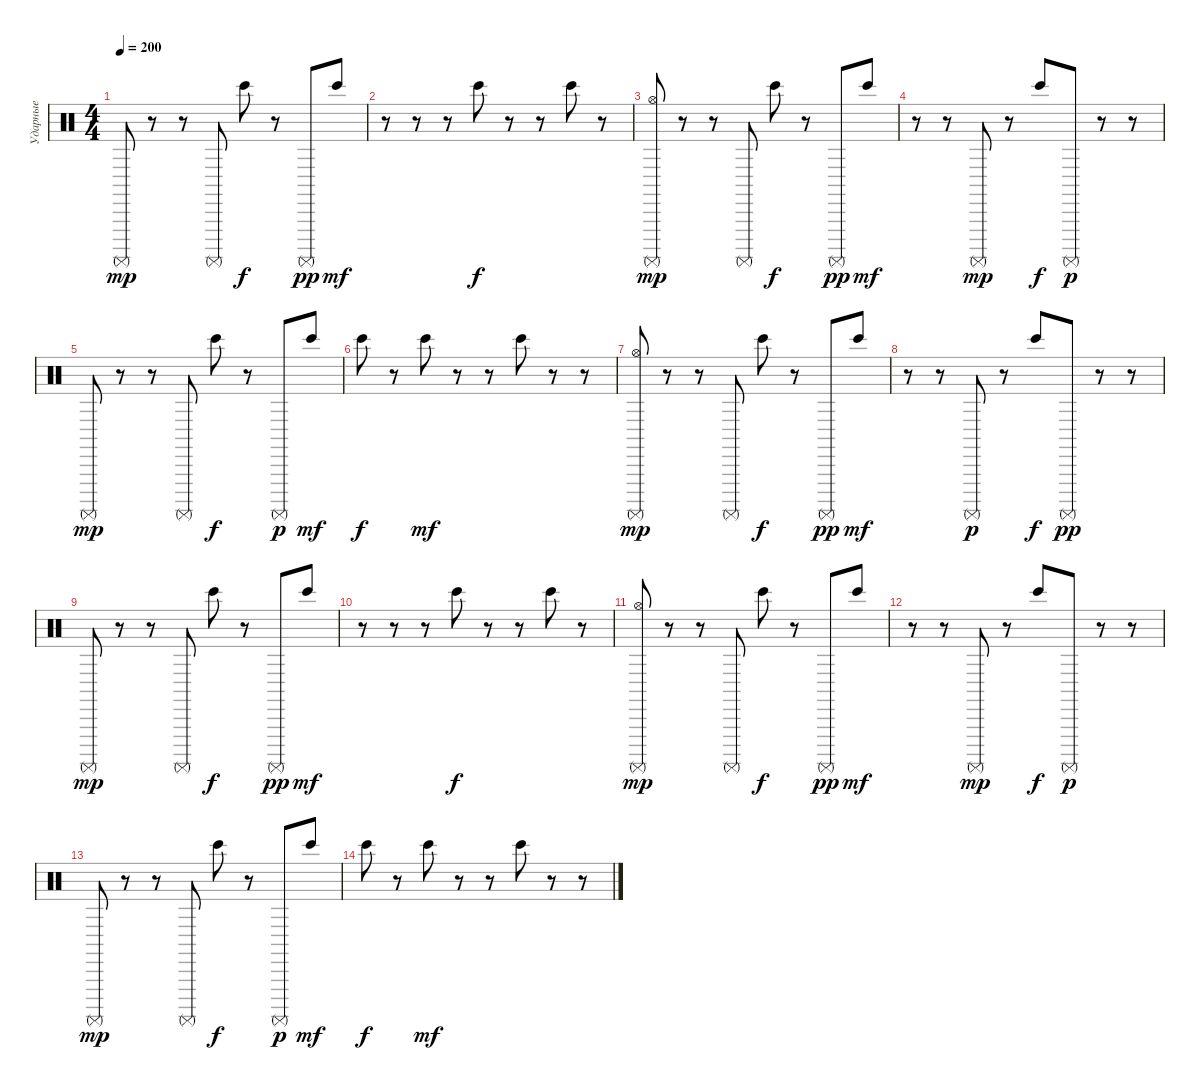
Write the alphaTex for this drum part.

\track ("Ударные" "Ударные") {instrument percussion}
\staff {score}
\articulation defaults
\ts (4 4)
\tempo 200
\clef neutral
\ks c "Surdo (mute)".8{dy mp}
r.8 r.8 "Surdo (mute)".8 "Bongo High (hit)".8{dy f} r.8 "Surdo (mute)".8{dy pp} "Bongo High (hit)".8{dy mf} |
r.8 r.8 r.8 "Bongo High (hit)".8{dy f} r.8 r.8 "Bongo High (hit)".8 r.8 |
("Hi-Hat (open)" "Surdo (mute)").8{dy mp} r.8 r.8 "Surdo (mute)".8 "Bongo High (hit)".8{dy f} r.8 "Surdo (mute)".8{dy pp} "Bongo High (hit)".8{dy mf} |
r.8 r.8 "Surdo (mute)".8{dy mp} r.8 "Bongo High (hit)".8{dy f} "Surdo (mute)".8{dy p} r.8 r.8 |
"Surdo (mute)".8{dy mp} r.8 r.8 "Surdo (mute)".8 "Bongo High (hit)".8{dy f} r.8 "Surdo (mute)".8{dy p} "Bongo High (hit)".8{dy mf} |
"Bongo High (hit)".8{dy f} r.8 "Bongo High (hit)".8{dy mf} r.8 r.8 "Bongo High (hit)".8 r.8 r.8 |
("Hi-Hat (open)" "Surdo (mute)").8{dy mp} r.8 r.8 "Surdo (mute)".8 "Bongo High (hit)".8{dy f} r.8 "Surdo (mute)".8{dy pp} "Bongo High (hit)".8{dy mf} |
r.8 r.8 "Surdo (mute)".8{dy p} r.8 "Bongo High (hit)".8{dy f} "Surdo (mute)".8{dy pp} r.8 r.8 |
"Surdo (mute)".8{dy mp} r.8 r.8 "Surdo (mute)".8 "Bongo High (hit)".8{dy f} r.8 "Surdo (mute)".8{dy pp} "Bongo High (hit)".8{dy mf} |
r.8 r.8 r.8 "Bongo High (hit)".8{dy f} r.8 r.8 "Bongo High (hit)".8 r.8 |
("Hi-Hat (open)" "Surdo (mute)").8{dy mp} r.8 r.8 "Surdo (mute)".8 "Bongo High (hit)".8{dy f} r.8 "Surdo (mute)".8{dy pp} "Bongo High (hit)".8{dy mf} |
r.8 r.8 "Surdo (mute)".8{dy mp} r.8 "Bongo High (hit)".8{dy f} "Surdo (mute)".8{dy p} r.8 r.8 |
"Surdo (mute)".8{dy mp} r.8 r.8 "Surdo (mute)".8 "Bongo High (hit)".8{dy f} r.8 "Surdo (mute)".8{dy p} "Bongo High (hit)".8{dy mf} |
"Bongo High (hit)".8{dy f} r.8 "Bongo High (hit)".8{dy mf} r.8 r.8 "Bongo High (hit)".8 r.8 r.8
